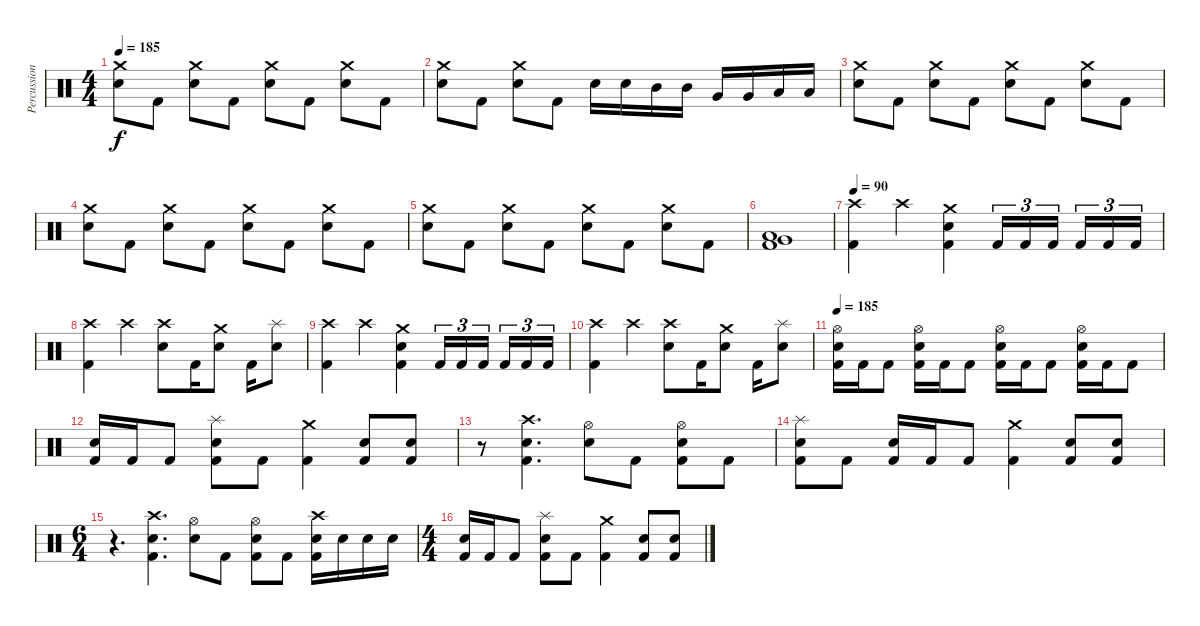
\track ("Percussion" "Percussion") {instrument percussion}
\staff {score}
\articulation defaults
\ts (4 4)
\tempo 185
\clef neutral
\ks c
("Crash medium (hit)" "Electric Snare (hit)").8{dy f} "Kick (hit) 2".8 ("Crash medium (hit)" "Electric Snare (hit)").8 "Kick (hit) 2".8 ("Crash medium (hit)" "Electric Snare (hit)").8 "Kick (hit) 2".8 ("Crash medium (hit)" "Electric Snare (hit)").8 "Kick (hit) 2".8 |
("Crash medium (hit)" "Electric Snare (hit)").8 "Kick (hit) 2".8 ("Crash medium (hit)" "Electric Snare (hit)").8 "Kick (hit) 2".8 "Electric Snare (hit)".16 "Electric Snare (hit)".16 "Mid Tom (hit)".16 "Mid Tom (hit)".16 "Very Low Tom (hit)".16 "Very Low Tom (hit)".16 "Low Floor Tom (hit)".16 "Low Floor Tom (hit)".16 |
("Crash medium (hit)" "Electric Snare (hit)").8 "Kick (hit) 2".8 ("Crash medium (hit)" "Electric Snare (hit)").8 "Kick (hit) 2".8 ("Crash medium (hit)" "Electric Snare (hit)").8 "Kick (hit) 2".8 ("Crash medium (hit)" "Electric Snare (hit)").8 "Kick (hit) 2".8 |
("Crash medium (hit)" "Electric Snare (hit)").8 "Kick (hit) 2".8 ("Crash medium (hit)" "Electric Snare (hit)").8 "Kick (hit) 2".8 ("Crash medium (hit)" "Electric Snare (hit)").8 "Kick (hit) 2".8 ("Crash medium (hit)" "Electric Snare (hit)").8 "Kick (hit) 2".8 |
("Crash medium (hit)" "Electric Snare (hit)").8 "Kick (hit) 2".8 ("Crash medium (hit)" "Electric Snare (hit)").8 "Kick (hit) 2".8 ("Crash medium (hit)" "Electric Snare (hit)").8 "Kick (hit) 2".8 ("Crash medium (hit)" "Electric Snare (hit)").8 "Kick (hit) 2".8 |
("Low Floor Tom (hit)" "Very Low Tom (hit)" "Kick (hit) 2").1 |
\tempo 90
("Crash high (hit)" "Kick (hit) 2").4 "Crash high (hit)".4 ("Crash medium (hit)" "Electric Snare (hit)" "Kick (hit) 2").4 "Kick (hit) 2".16{tu (3 2)} "Kick (hit) 2".16{tu (3 2)} "Kick (hit) 2".16{tu (3 2) beam splitsecondary} "Kick (hit) 2".16{tu (3 2)} "Kick (hit) 2".16{tu (3 2)} "Kick (hit) 2".16{tu (3 2)} |
("Crash high (hit)" "Kick (hit) 2").4 "Crash high (hit)".4 ("Crash high (hit)" "Electric Snare (hit)").8 "Kick (hit) 2".16 ("Crash medium (hit)" "Electric Snare (hit)").8 "Kick (hit) 2".16 ("Splash (hit)" "Electric Snare (hit)").8 |
("Crash high (hit)" "Kick (hit) 2").4 "Crash high (hit)".4 ("Crash medium (hit)" "Electric Snare (hit)" "Kick (hit) 2").4 "Kick (hit) 2".16{tu (3 2)} "Kick (hit) 2".16{tu (3 2)} "Kick (hit) 2".16{tu (3 2) beam splitsecondary} "Kick (hit) 2".16{tu (3 2)} "Kick (hit) 2".16{tu (3 2)} "Kick (hit) 2".16{tu (3 2)} |
("Crash high (hit)" "Kick (hit) 2").4 "Crash high (hit)".4 ("Crash high (hit)" "Electric Snare (hit)").8 "Kick (hit) 2".16 ("Crash medium (hit)" "Electric Snare (hit)").8 "Kick (hit) 2".16 ("Splash (hit)" "Electric Snare (hit)").8 |
\tempo 185
("Hi-Hat (open)" "Electric Snare (hit)" "Kick (hit) 2").16 "Kick (hit) 2".16 "Kick (hit) 2".8 ("Hi-Hat (open)" "Electric Snare (hit)" "Kick (hit) 2").16 "Kick (hit) 2".16 "Kick (hit) 2".8 ("Hi-Hat (open)" "Electric Snare (hit)" "Kick (hit) 2").16 "Kick (hit) 2".16 "Kick (hit) 2".8 ("Hi-Hat (open)" "Electric Snare (hit)" "Kick (hit) 2").16 "Kick (hit) 2".16 "Kick (hit) 2".8 |
("Electric Snare (hit)" "Kick (hit) 2").16 "Kick (hit) 2".16 "Kick (hit) 2".8 ("Splash (hit)" "Electric Snare (hit)" "Kick (hit) 2").8 "Kick (hit) 2".8 ("Crash medium (hit)" "Kick (hit) 2").4 ("Electric Snare (hit)" "Kick (hit) 2").8 ("Electric Snare (hit)" "Kick (hit) 2").8 |
r.8 ("Crash high (hit)" "Electric Snare (hit)" "Kick (hit) 2").4{d} ("Hi-Hat (open)" "Electric Snare (hit)").8 "Kick (hit) 2".8 ("Hi-Hat (open)" "Electric Snare (hit)" "Kick (hit) 2").8 "Kick (hit) 2".8 |
("Splash (hit)" "Electric Snare (hit)" "Kick (hit) 2").8 "Kick (hit) 2".8 ("Electric Snare (hit)" "Kick (hit) 2").16 "Kick (hit) 2".16 "Kick (hit) 2".8 ("Crash medium (hit)" "Kick (hit) 2").4 ("Electric Snare (hit)" "Kick (hit) 2").8 ("Electric Snare (hit)" "Kick (hit) 2").8 |
\ts (6 4)
r.4{d} ("Crash high (hit)" "Electric Snare (hit)" "Kick (hit) 2").4{d} ("Hi-Hat (open)" "Electric Snare (hit)").8 "Kick (hit) 2".8 ("Hi-Hat (open)" "Electric Snare (hit)" "Kick (hit) 2").8 "Kick (hit) 2".8 ("Crash high (hit)" "Electric Snare (hit)" "Kick (hit) 2").16 "Electric Snare (hit)".16 "Electric Snare (hit)".16 "Electric Snare (hit)".16 |
\ts (4 4)
("Electric Snare (hit)" "Kick (hit) 2").16 "Kick (hit) 2".16 "Kick (hit) 2".8 ("Splash (hit)" "Electric Snare (hit)" "Kick (hit) 2").8 "Kick (hit) 2".8 ("Crash medium (hit)" "Kick (hit) 2").4 ("Electric Snare (hit)" "Kick (hit) 2").8 ("Electric Snare (hit)" "Kick (hit) 2").8
